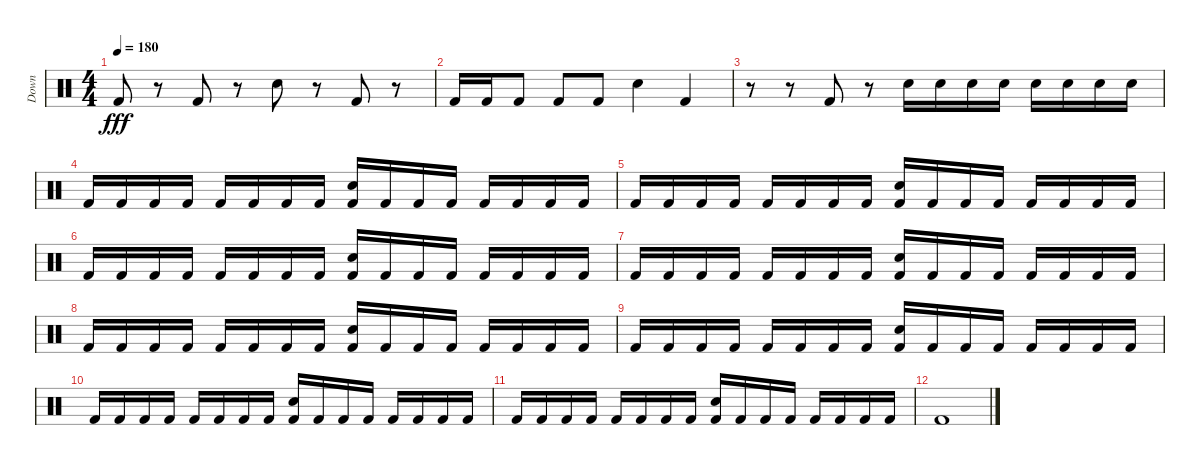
\track ("Down" "Down") {instrument percussion}
\staff {score}
\articulation defaults
\ts (4 4)
\tempo 180
\clef neutral
\ks c "Kick (hit) 2".8{dy fff}
r.8 "Kick (hit) 2".8 r.8 "Electric Snare (hit)".8 r.8 "Kick (hit) 2".8 r.8 |
"Kick (hit) 2".16 "Kick (hit) 2".16 "Kick (hit) 2".8 "Kick (hit) 2".8 "Kick (hit) 2".8 "Electric Snare (hit)".4 "Kick (hit) 2".4 |
r.8 r.8 "Kick (hit) 2".8 r.8 "Electric Snare (hit)".16 "Electric Snare (hit)".16 "Electric Snare (hit)".16 "Electric Snare (hit)".16 "Electric Snare (hit)".16 "Electric Snare (hit)".16 "Electric Snare (hit)".16 "Electric Snare (hit)".16 |
"Kick (hit) 2".16 "Kick (hit) 2".16 "Kick (hit) 2".16 "Kick (hit) 2".16 "Kick (hit) 2".16 "Kick (hit) 2".16 "Kick (hit) 2".16 "Kick (hit) 2".16 ("Electric Snare (hit)" "Kick (hit) 2").16 "Kick (hit) 2".16 "Kick (hit) 2".16 "Kick (hit) 2".16 "Kick (hit) 2".16 "Kick (hit) 2".16 "Kick (hit) 2".16 "Kick (hit) 2".16 |
"Kick (hit) 2".16 "Kick (hit) 2".16 "Kick (hit) 2".16 "Kick (hit) 2".16 "Kick (hit) 2".16 "Kick (hit) 2".16 "Kick (hit) 2".16 "Kick (hit) 2".16 ("Electric Snare (hit)" "Kick (hit) 2").16 "Kick (hit) 2".16 "Kick (hit) 2".16 "Kick (hit) 2".16 "Kick (hit) 2".16 "Kick (hit) 2".16 "Kick (hit) 2".16 "Kick (hit) 2".16 |
"Kick (hit) 2".16 "Kick (hit) 2".16 "Kick (hit) 2".16 "Kick (hit) 2".16 "Kick (hit) 2".16 "Kick (hit) 2".16 "Kick (hit) 2".16 "Kick (hit) 2".16 ("Electric Snare (hit)" "Kick (hit) 2").16 "Kick (hit) 2".16 "Kick (hit) 2".16 "Kick (hit) 2".16 "Kick (hit) 2".16 "Kick (hit) 2".16 "Kick (hit) 2".16 "Kick (hit) 2".16 |
"Kick (hit) 2".16 "Kick (hit) 2".16 "Kick (hit) 2".16 "Kick (hit) 2".16 "Kick (hit) 2".16 "Kick (hit) 2".16 "Kick (hit) 2".16 "Kick (hit) 2".16 ("Electric Snare (hit)" "Kick (hit) 2").16 "Kick (hit) 2".16 "Kick (hit) 2".16 "Kick (hit) 2".16 "Kick (hit) 2".16 "Kick (hit) 2".16 "Kick (hit) 2".16 "Kick (hit) 2".16 |
"Kick (hit) 2".16 "Kick (hit) 2".16 "Kick (hit) 2".16 "Kick (hit) 2".16 "Kick (hit) 2".16 "Kick (hit) 2".16 "Kick (hit) 2".16 "Kick (hit) 2".16 ("Electric Snare (hit)" "Kick (hit) 2").16 "Kick (hit) 2".16 "Kick (hit) 2".16 "Kick (hit) 2".16 "Kick (hit) 2".16 "Kick (hit) 2".16 "Kick (hit) 2".16 "Kick (hit) 2".16 |
"Kick (hit) 2".16 "Kick (hit) 2".16 "Kick (hit) 2".16 "Kick (hit) 2".16 "Kick (hit) 2".16 "Kick (hit) 2".16 "Kick (hit) 2".16 "Kick (hit) 2".16 ("Electric Snare (hit)" "Kick (hit) 2").16 "Kick (hit) 2".16 "Kick (hit) 2".16 "Kick (hit) 2".16 "Kick (hit) 2".16 "Kick (hit) 2".16 "Kick (hit) 2".16 "Kick (hit) 2".16 |
"Kick (hit) 2".16 "Kick (hit) 2".16 "Kick (hit) 2".16 "Kick (hit) 2".16 "Kick (hit) 2".16 "Kick (hit) 2".16 "Kick (hit) 2".16 "Kick (hit) 2".16 ("Electric Snare (hit)" "Kick (hit) 2").16 "Kick (hit) 2".16 "Kick (hit) 2".16 "Kick (hit) 2".16 "Kick (hit) 2".16 "Kick (hit) 2".16 "Kick (hit) 2".16 "Kick (hit) 2".16 |
"Kick (hit) 2".16 "Kick (hit) 2".16 "Kick (hit) 2".16 "Kick (hit) 2".16 "Kick (hit) 2".16 "Kick (hit) 2".16 "Kick (hit) 2".16 "Kick (hit) 2".16 ("Electric Snare (hit)" "Kick (hit) 2").16 "Kick (hit) 2".16 "Kick (hit) 2".16 "Kick (hit) 2".16 "Kick (hit) 2".16 "Kick (hit) 2".16 "Kick (hit) 2".16 "Kick (hit) 2".16 |
"Kick (hit) 2".1
